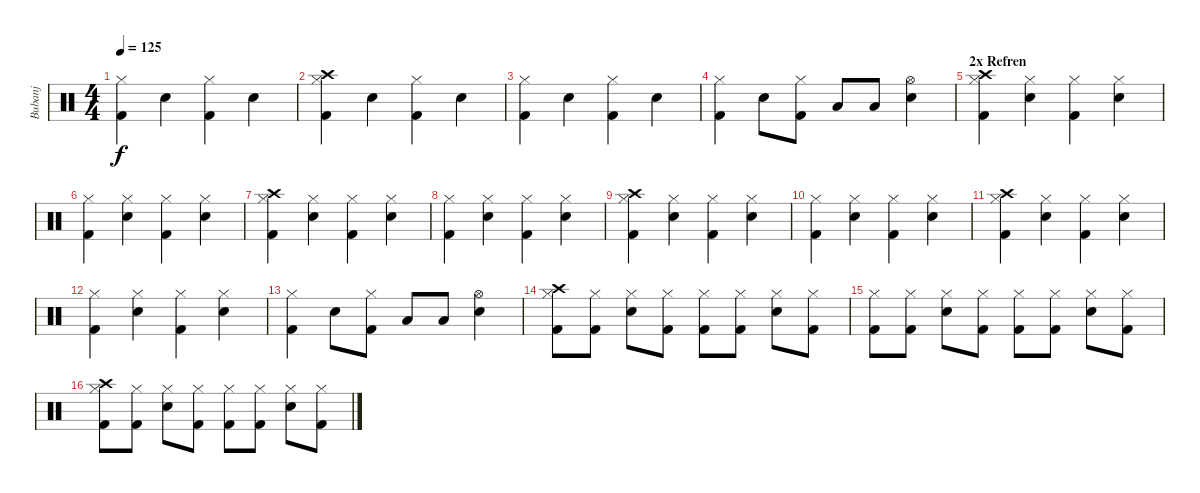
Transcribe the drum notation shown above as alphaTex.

\track ("Bubanj" "Bubanj") {instrument percussion}
\staff {score}
\articulation defaults
\ts (4 4)
\tempo 125
\clef neutral
\ks c
("Hi-Hat (closed)" "Kick (hit) 2").4{dy f} "Electric Snare (hit)".4 ("Hi-Hat (closed)" "Kick (hit) 2").4 "Electric Snare (hit)".4 |
("Crash high (hit)" "Hi-Hat (closed)" "Kick (hit) 2").4 "Electric Snare (hit)".4 ("Hi-Hat (closed)" "Kick (hit) 2").4 "Electric Snare (hit)".4 |
("Hi-Hat (closed)" "Kick (hit) 2").4 "Electric Snare (hit)".4 ("Hi-Hat (closed)" "Kick (hit) 2").4 "Electric Snare (hit)".4 |
("Hi-Hat (closed)" "Kick (hit) 2").4 "Electric Snare (hit)".8 ("Hi-Hat (closed)" "Kick (hit) 2").8 "Low Tom (hit)".8 "Low Floor Tom (hit)".8 ("Hi-Hat (open)" "Electric Snare (hit)").4 |
\section ("" "2x Refren")
("Crash high (hit)" "Hi-Hat (closed)" "Kick (hit) 2").4 ("Electric Snare (hit)" "Hi-Hat (closed)").4 ("Hi-Hat (closed)" "Kick (hit) 2").4 ("Electric Snare (hit)" "Hi-Hat (closed)").4 |
("Hi-Hat (closed)" "Kick (hit) 2").4 ("Electric Snare (hit)" "Hi-Hat (closed)").4 ("Hi-Hat (closed)" "Kick (hit) 2").4 ("Electric Snare (hit)" "Hi-Hat (closed)").4 |
("Crash high (hit)" "Hi-Hat (closed)" "Kick (hit) 2").4 ("Electric Snare (hit)" "Hi-Hat (closed)").4 ("Hi-Hat (closed)" "Kick (hit) 2").4 ("Electric Snare (hit)" "Hi-Hat (closed)").4 |
("Hi-Hat (closed)" "Kick (hit) 2").4 ("Electric Snare (hit)" "Hi-Hat (closed)").4 ("Hi-Hat (closed)" "Kick (hit) 2").4 ("Electric Snare (hit)" "Hi-Hat (closed)").4 |
("Crash high (hit)" "Hi-Hat (closed)" "Kick (hit) 2").4 ("Electric Snare (hit)" "Hi-Hat (closed)").4 ("Hi-Hat (closed)" "Kick (hit) 2").4 ("Electric Snare (hit)" "Hi-Hat (closed)").4 |
("Hi-Hat (closed)" "Kick (hit) 2").4 ("Electric Snare (hit)" "Hi-Hat (closed)").4 ("Hi-Hat (closed)" "Kick (hit) 2").4 ("Electric Snare (hit)" "Hi-Hat (closed)").4 |
("Crash high (hit)" "Hi-Hat (closed)" "Kick (hit) 2").4 ("Electric Snare (hit)" "Hi-Hat (closed)").4 ("Hi-Hat (closed)" "Kick (hit) 2").4 ("Electric Snare (hit)" "Hi-Hat (closed)").4 |
("Hi-Hat (closed)" "Kick (hit) 2").4 ("Electric Snare (hit)" "Hi-Hat (closed)").4 ("Hi-Hat (closed)" "Kick (hit) 2").4 ("Electric Snare (hit)" "Hi-Hat (closed)").4 |
("Hi-Hat (closed)" "Kick (hit) 2").4 "Electric Snare (hit)".8 ("Hi-Hat (closed)" "Kick (hit) 2").8 "Low Tom (hit)".8 "Low Floor Tom (hit)".8 ("Hi-Hat (open)" "Electric Snare (hit)").4 |
("Crash high (hit)" "Hi-Hat (closed)" "Kick (hit) 2").8 ("Hi-Hat (closed)" "Kick (hit) 2").8 ("Electric Snare (hit)" "Hi-Hat (closed)").8 ("Hi-Hat (closed)" "Kick (hit) 2").8 ("Hi-Hat (closed)" "Kick (hit) 2").8 ("Hi-Hat (closed)" "Kick (hit) 2").8 ("Electric Snare (hit)" "Hi-Hat (closed)").8 ("Hi-Hat (closed)" "Kick (hit) 2").8 |
("Hi-Hat (closed)" "Kick (hit) 2").8 ("Hi-Hat (closed)" "Kick (hit) 2").8 ("Electric Snare (hit)" "Hi-Hat (closed)").8 ("Hi-Hat (closed)" "Kick (hit) 2").8 ("Hi-Hat (closed)" "Kick (hit) 2").8 ("Hi-Hat (closed)" "Kick (hit) 2").8 ("Electric Snare (hit)" "Hi-Hat (closed)").8 ("Hi-Hat (closed)" "Kick (hit) 2").8 |
("Crash high (hit)" "Hi-Hat (closed)" "Kick (hit) 2").8 ("Hi-Hat (closed)" "Kick (hit) 2").8 ("Electric Snare (hit)" "Hi-Hat (closed)").8 ("Hi-Hat (closed)" "Kick (hit) 2").8 ("Hi-Hat (closed)" "Kick (hit) 2").8 ("Hi-Hat (closed)" "Kick (hit) 2").8 ("Electric Snare (hit)" "Hi-Hat (closed)").8 ("Hi-Hat (closed)" "Kick (hit) 2").8
